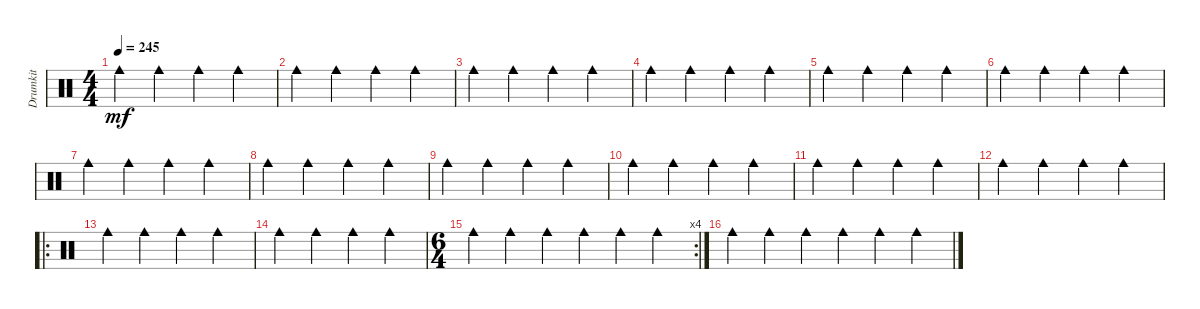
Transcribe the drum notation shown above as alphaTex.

\track ("Drumkit" "Drumkit") {instrument percussion}
\staff {score}
\articulation defaults
\ts (4 4)
\tempo 245
\clef neutral
\ks c "Cowbell medium (hit)".4{dy mf} "Cowbell medium (hit)".4 "Cowbell medium (hit)".4 "Cowbell medium (hit)".4
|
"Cowbell medium (hit)".4 "Cowbell medium (hit)".4 "Cowbell medium (hit)".4 "Cowbell medium (hit)".4 |
"Cowbell medium (hit)".4 "Cowbell medium (hit)".4 "Cowbell medium (hit)".4 "Cowbell medium (hit)".4 |
"Cowbell medium (hit)".4 "Cowbell medium (hit)".4 "Cowbell medium (hit)".4 "Cowbell medium (hit)".4 |
"Cowbell medium (hit)".4 "Cowbell medium (hit)".4 "Cowbell medium (hit)".4 "Cowbell medium (hit)".4 |
"Cowbell medium (hit)".4 "Cowbell medium (hit)".4 "Cowbell medium (hit)".4 "Cowbell medium (hit)".4 |
"Cowbell medium (hit)".4 "Cowbell medium (hit)".4 "Cowbell medium (hit)".4 "Cowbell medium (hit)".4 |
"Cowbell medium (hit)".4 "Cowbell medium (hit)".4 "Cowbell medium (hit)".4 "Cowbell medium (hit)".4 |
"Cowbell medium (hit)".4 "Cowbell medium (hit)".4 "Cowbell medium (hit)".4 "Cowbell medium (hit)".4 |
"Cowbell medium (hit)".4 "Cowbell medium (hit)".4 "Cowbell medium (hit)".4 "Cowbell medium (hit)".4 |
"Cowbell medium (hit)".4 "Cowbell medium (hit)".4 "Cowbell medium (hit)".4 "Cowbell medium (hit)".4 |
"Cowbell medium (hit)".4 "Cowbell medium (hit)".4 "Cowbell medium (hit)".4 "Cowbell medium (hit)".4 |
\ro "Cowbell medium (hit)".4 "Cowbell medium (hit)".4 "Cowbell medium (hit)".4 "Cowbell medium (hit)".4
|
"Cowbell medium (hit)".4 "Cowbell medium (hit)".4 "Cowbell medium (hit)".4 "Cowbell medium (hit)".4 |
\rc 4
\ts (6 4)
"Cowbell medium (hit)".4 "Cowbell medium (hit)".4 "Cowbell medium (hit)".4 "Cowbell medium (hit)".4 "Cowbell medium (hit)".4 "Cowbell medium (hit)".4 |
"Cowbell medium (hit)".4 "Cowbell medium (hit)".4 "Cowbell medium (hit)".4 "Cowbell medium (hit)".4 "Cowbell medium (hit)".4 "Cowbell medium (hit)".4
